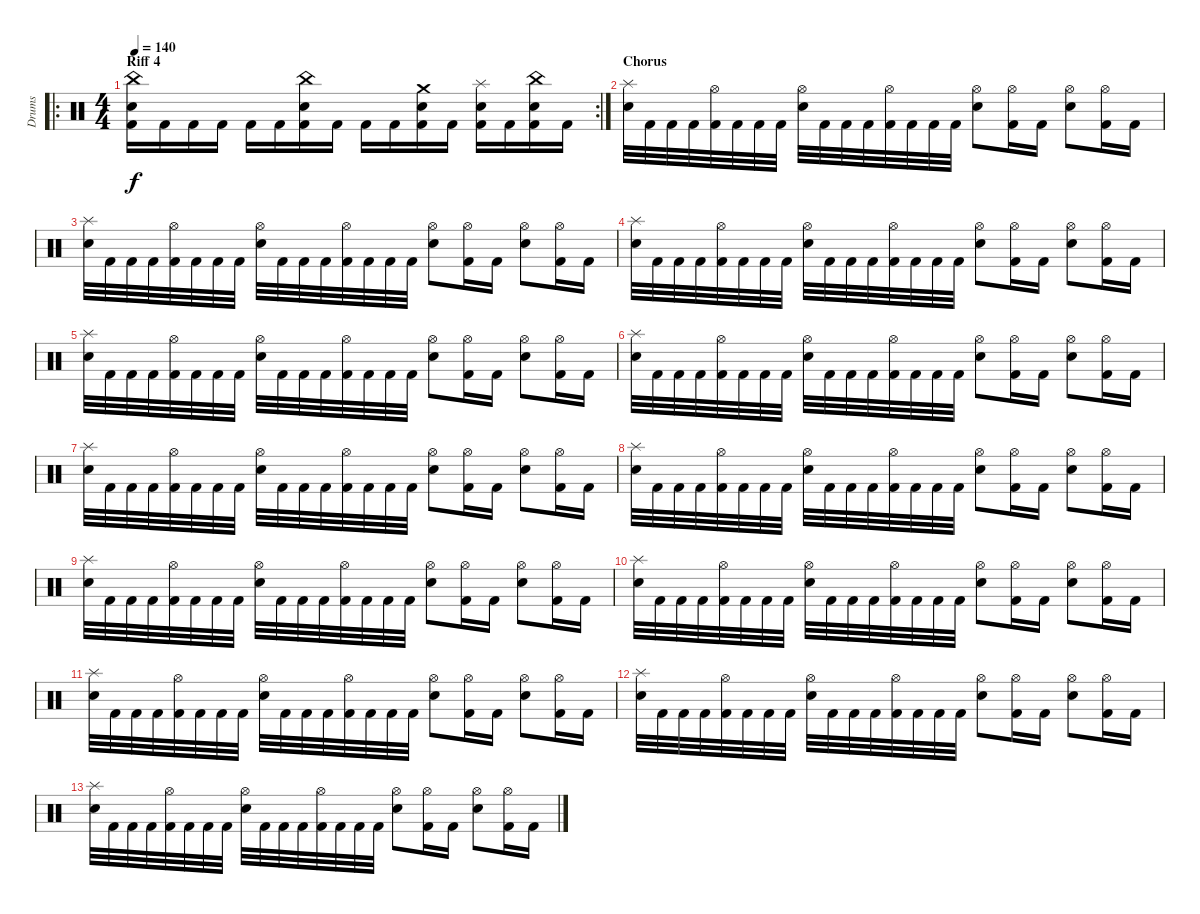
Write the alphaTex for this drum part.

\track ("Drums" "Drums") {instrument percussion}
\staff {score}
\articulation defaults
\ro
\rc 2
\ts (4 4)
\section ("" "Riff 4")
\tempo 140
\clef neutral
\ks c
("Kick (hit) 2" "Snare (hit) 2" "China (hit)").16{dy f} "Kick (hit) 2".16 "Kick (hit) 2".16 "Kick (hit) 2".16 "Kick (hit) 2".16 "Kick (hit) 2".16 ("Kick (hit) 2" "Snare (hit) 2" "China (hit)").16 "Kick (hit) 2".16 "Kick (hit) 2".16 "Kick (hit) 2".16 ("Kick (hit) 2" "Snare (hit) 2" "Crash medium (hit)").16 "Kick (hit) 2".16 ("Kick (hit) 2" "Snare (hit) 2" "Splash (hit)").16 "Kick (hit) 2".16 ("Kick (hit) 2" "Snare (hit) 2" "China (hit)").16 "Kick (hit) 2".16 |
\section ("" "Chorus")
("Snare (hit) 2" "Splash (hit)").32 "Kick (hit) 2".32 "Kick (hit) 2".32 "Kick (hit) 2".32 ("Kick (hit) 2" "Hi-Hat (open)").32 "Kick (hit) 2".32 "Kick (hit) 2".32 "Kick (hit) 2".32 ("Snare (hit) 2" "Hi-Hat (open)").32 "Kick (hit) 2".32 "Kick (hit) 2".32 "Kick (hit) 2".32 ("Kick (hit) 2" "Hi-Hat (open)").32 "Kick (hit) 2".32 "Kick (hit) 2".32 "Kick (hit) 2".32 ("Snare (hit) 2" "Hi-Hat (open)").8 ("Kick (hit) 2" "Hi-Hat (open)").16 "Kick (hit) 2".16 ("Snare (hit) 2" "Hi-Hat (open)").8 ("Kick (hit) 2" "Hi-Hat (open)").16 "Kick (hit) 2".16 |
("Snare (hit) 2" "Splash (hit)").32 "Kick (hit) 2".32 "Kick (hit) 2".32 "Kick (hit) 2".32 ("Kick (hit) 2" "Hi-Hat (open)").32 "Kick (hit) 2".32 "Kick (hit) 2".32 "Kick (hit) 2".32 ("Snare (hit) 2" "Hi-Hat (open)").32 "Kick (hit) 2".32 "Kick (hit) 2".32 "Kick (hit) 2".32 ("Kick (hit) 2" "Hi-Hat (open)").32 "Kick (hit) 2".32 "Kick (hit) 2".32 "Kick (hit) 2".32 ("Snare (hit) 2" "Hi-Hat (open)").8 ("Kick (hit) 2" "Hi-Hat (open)").16 "Kick (hit) 2".16 ("Snare (hit) 2" "Hi-Hat (open)").8 ("Kick (hit) 2" "Hi-Hat (open)").16 "Kick (hit) 2".16 |
("Snare (hit) 2" "Splash (hit)").32 "Kick (hit) 2".32 "Kick (hit) 2".32 "Kick (hit) 2".32 ("Kick (hit) 2" "Hi-Hat (open)").32 "Kick (hit) 2".32 "Kick (hit) 2".32 "Kick (hit) 2".32 ("Snare (hit) 2" "Hi-Hat (open)").32 "Kick (hit) 2".32 "Kick (hit) 2".32 "Kick (hit) 2".32 ("Kick (hit) 2" "Hi-Hat (open)").32 "Kick (hit) 2".32 "Kick (hit) 2".32 "Kick (hit) 2".32 ("Snare (hit) 2" "Hi-Hat (open)").8 ("Kick (hit) 2" "Hi-Hat (open)").16 "Kick (hit) 2".16 ("Snare (hit) 2" "Hi-Hat (open)").8 ("Kick (hit) 2" "Hi-Hat (open)").16 "Kick (hit) 2".16 |
("Snare (hit) 2" "Splash (hit)").32 "Kick (hit) 2".32 "Kick (hit) 2".32 "Kick (hit) 2".32 ("Kick (hit) 2" "Hi-Hat (open)").32 "Kick (hit) 2".32 "Kick (hit) 2".32 "Kick (hit) 2".32 ("Snare (hit) 2" "Hi-Hat (open)").32 "Kick (hit) 2".32 "Kick (hit) 2".32 "Kick (hit) 2".32 ("Kick (hit) 2" "Hi-Hat (open)").32 "Kick (hit) 2".32 "Kick (hit) 2".32 "Kick (hit) 2".32 ("Snare (hit) 2" "Hi-Hat (open)").8 ("Kick (hit) 2" "Hi-Hat (open)").16 "Kick (hit) 2".16 ("Snare (hit) 2" "Hi-Hat (open)").8 ("Kick (hit) 2" "Hi-Hat (open)").16 "Kick (hit) 2".16 |
("Snare (hit) 2" "Splash (hit)").32 "Kick (hit) 2".32 "Kick (hit) 2".32 "Kick (hit) 2".32 ("Kick (hit) 2" "Hi-Hat (open)").32 "Kick (hit) 2".32 "Kick (hit) 2".32 "Kick (hit) 2".32 ("Snare (hit) 2" "Hi-Hat (open)").32 "Kick (hit) 2".32 "Kick (hit) 2".32 "Kick (hit) 2".32 ("Kick (hit) 2" "Hi-Hat (open)").32 "Kick (hit) 2".32 "Kick (hit) 2".32 "Kick (hit) 2".32 ("Snare (hit) 2" "Hi-Hat (open)").8 ("Kick (hit) 2" "Hi-Hat (open)").16 "Kick (hit) 2".16 ("Snare (hit) 2" "Hi-Hat (open)").8 ("Kick (hit) 2" "Hi-Hat (open)").16 "Kick (hit) 2".16 |
("Snare (hit) 2" "Splash (hit)").32 "Kick (hit) 2".32 "Kick (hit) 2".32 "Kick (hit) 2".32 ("Kick (hit) 2" "Hi-Hat (open)").32 "Kick (hit) 2".32 "Kick (hit) 2".32 "Kick (hit) 2".32 ("Snare (hit) 2" "Hi-Hat (open)").32 "Kick (hit) 2".32 "Kick (hit) 2".32 "Kick (hit) 2".32 ("Kick (hit) 2" "Hi-Hat (open)").32 "Kick (hit) 2".32 "Kick (hit) 2".32 "Kick (hit) 2".32 ("Snare (hit) 2" "Hi-Hat (open)").8 ("Kick (hit) 2" "Hi-Hat (open)").16 "Kick (hit) 2".16 ("Snare (hit) 2" "Hi-Hat (open)").8 ("Kick (hit) 2" "Hi-Hat (open)").16 "Kick (hit) 2".16 |
("Snare (hit) 2" "Splash (hit)").32 "Kick (hit) 2".32 "Kick (hit) 2".32 "Kick (hit) 2".32 ("Kick (hit) 2" "Hi-Hat (open)").32 "Kick (hit) 2".32 "Kick (hit) 2".32 "Kick (hit) 2".32 ("Snare (hit) 2" "Hi-Hat (open)").32 "Kick (hit) 2".32 "Kick (hit) 2".32 "Kick (hit) 2".32 ("Kick (hit) 2" "Hi-Hat (open)").32 "Kick (hit) 2".32 "Kick (hit) 2".32 "Kick (hit) 2".32 ("Snare (hit) 2" "Hi-Hat (open)").8 ("Kick (hit) 2" "Hi-Hat (open)").16 "Kick (hit) 2".16 ("Snare (hit) 2" "Hi-Hat (open)").8 ("Kick (hit) 2" "Hi-Hat (open)").16 "Kick (hit) 2".16 |
("Snare (hit) 2" "Splash (hit)").32 "Kick (hit) 2".32 "Kick (hit) 2".32 "Kick (hit) 2".32 ("Kick (hit) 2" "Hi-Hat (open)").32 "Kick (hit) 2".32 "Kick (hit) 2".32 "Kick (hit) 2".32 ("Snare (hit) 2" "Hi-Hat (open)").32 "Kick (hit) 2".32 "Kick (hit) 2".32 "Kick (hit) 2".32 ("Kick (hit) 2" "Hi-Hat (open)").32 "Kick (hit) 2".32 "Kick (hit) 2".32 "Kick (hit) 2".32 ("Snare (hit) 2" "Hi-Hat (open)").8 ("Kick (hit) 2" "Hi-Hat (open)").16 "Kick (hit) 2".16 ("Snare (hit) 2" "Hi-Hat (open)").8 ("Kick (hit) 2" "Hi-Hat (open)").16 "Kick (hit) 2".16 |
("Snare (hit) 2" "Splash (hit)").32 "Kick (hit) 2".32 "Kick (hit) 2".32 "Kick (hit) 2".32 ("Kick (hit) 2" "Hi-Hat (open)").32 "Kick (hit) 2".32 "Kick (hit) 2".32 "Kick (hit) 2".32 ("Snare (hit) 2" "Hi-Hat (open)").32 "Kick (hit) 2".32 "Kick (hit) 2".32 "Kick (hit) 2".32 ("Kick (hit) 2" "Hi-Hat (open)").32 "Kick (hit) 2".32 "Kick (hit) 2".32 "Kick (hit) 2".32 ("Snare (hit) 2" "Hi-Hat (open)").8 ("Kick (hit) 2" "Hi-Hat (open)").16 "Kick (hit) 2".16 ("Snare (hit) 2" "Hi-Hat (open)").8 ("Kick (hit) 2" "Hi-Hat (open)").16 "Kick (hit) 2".16 |
("Snare (hit) 2" "Splash (hit)").32 "Kick (hit) 2".32 "Kick (hit) 2".32 "Kick (hit) 2".32 ("Kick (hit) 2" "Hi-Hat (open)").32 "Kick (hit) 2".32 "Kick (hit) 2".32 "Kick (hit) 2".32 ("Snare (hit) 2" "Hi-Hat (open)").32 "Kick (hit) 2".32 "Kick (hit) 2".32 "Kick (hit) 2".32 ("Kick (hit) 2" "Hi-Hat (open)").32 "Kick (hit) 2".32 "Kick (hit) 2".32 "Kick (hit) 2".32 ("Snare (hit) 2" "Hi-Hat (open)").8 ("Kick (hit) 2" "Hi-Hat (open)").16 "Kick (hit) 2".16 ("Snare (hit) 2" "Hi-Hat (open)").8 ("Kick (hit) 2" "Hi-Hat (open)").16 "Kick (hit) 2".16 |
("Snare (hit) 2" "Splash (hit)").32 "Kick (hit) 2".32 "Kick (hit) 2".32 "Kick (hit) 2".32 ("Kick (hit) 2" "Hi-Hat (open)").32 "Kick (hit) 2".32 "Kick (hit) 2".32 "Kick (hit) 2".32 ("Snare (hit) 2" "Hi-Hat (open)").32 "Kick (hit) 2".32 "Kick (hit) 2".32 "Kick (hit) 2".32 ("Kick (hit) 2" "Hi-Hat (open)").32 "Kick (hit) 2".32 "Kick (hit) 2".32 "Kick (hit) 2".32 ("Snare (hit) 2" "Hi-Hat (open)").8 ("Kick (hit) 2" "Hi-Hat (open)").16 "Kick (hit) 2".16 ("Snare (hit) 2" "Hi-Hat (open)").8 ("Kick (hit) 2" "Hi-Hat (open)").16 "Kick (hit) 2".16 |
("Snare (hit) 2" "Splash (hit)").32 "Kick (hit) 2".32 "Kick (hit) 2".32 "Kick (hit) 2".32 ("Kick (hit) 2" "Hi-Hat (open)").32 "Kick (hit) 2".32 "Kick (hit) 2".32 "Kick (hit) 2".32 ("Snare (hit) 2" "Hi-Hat (open)").32 "Kick (hit) 2".32 "Kick (hit) 2".32 "Kick (hit) 2".32 ("Kick (hit) 2" "Hi-Hat (open)").32 "Kick (hit) 2".32 "Kick (hit) 2".32 "Kick (hit) 2".32 ("Snare (hit) 2" "Hi-Hat (open)").8 ("Kick (hit) 2" "Hi-Hat (open)").16 "Kick (hit) 2".16 ("Snare (hit) 2" "Hi-Hat (open)").8 ("Kick (hit) 2" "Hi-Hat (open)").16 "Kick (hit) 2".16
